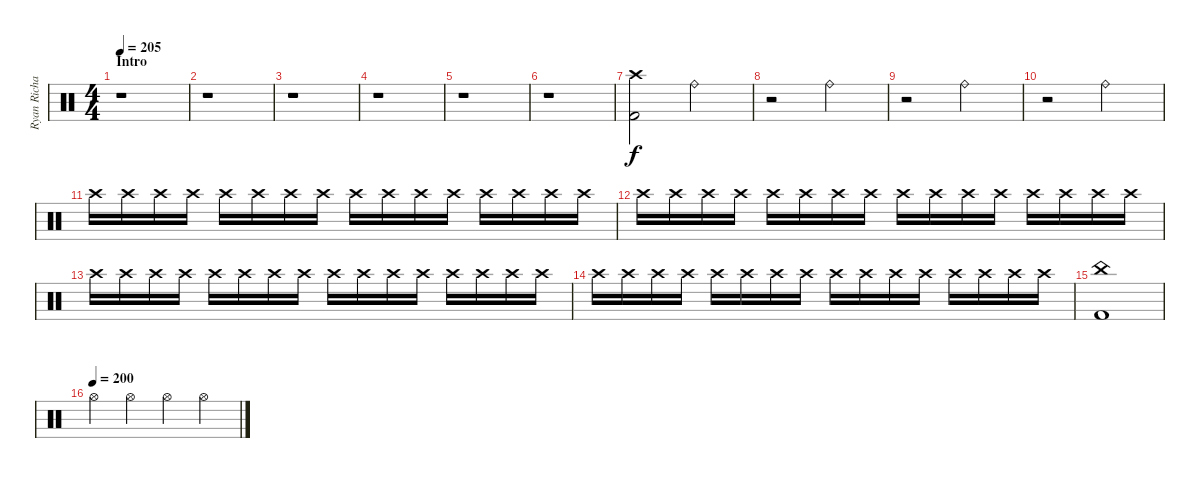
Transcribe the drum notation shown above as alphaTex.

\track ("Ryan Richards" "Ryan Richa") {instrument percussion}
\staff {score}
\articulation defaults
\ts (4 4)
\section ("" "Intro")
\tempo 205
\tempo 165
\tempo 205
\clef neutral
\ks c
r.1{dy f} |
r.1 |
r.1 |
r.1 |
r.1 |
r.1 |
("Crash high (hit)" "Kick (hit) 2").2 "Ride (bell)".2 |
r.2 "Ride (bell)".2 |
r.2 "Ride (bell)".2 |
r.2 "Ride (bell)".2 |
"Crash high (hit)".16{volume 0} "Crash high (hit)".16{volume 16} "Crash high (hit)".16 "Crash high (hit)".16 "Crash high (hit)".16 "Crash high (hit)".16 "Crash high (hit)".16 "Crash high (hit)".16 "Crash high (hit)".16 "Crash high (hit)".16 "Crash high (hit)".16 "Crash high (hit)".16 "Crash high (hit)".16 "Crash high (hit)".16 "Crash high (hit)".16 "Crash high (hit)".16 |
"Crash high (hit)".16 "Crash high (hit)".16 "Crash high (hit)".16 "Crash high (hit)".16 "Crash high (hit)".16 "Crash high (hit)".16 "Crash high (hit)".16 "Crash high (hit)".16 "Crash high (hit)".16 "Crash high (hit)".16 "Crash high (hit)".16 "Crash high (hit)".16 "Crash high (hit)".16 "Crash high (hit)".16 "Crash high (hit)".16 "Crash high (hit)".16 |
"Crash high (hit)".16 "Crash high (hit)".16 "Crash high (hit)".16 "Crash high (hit)".16 "Crash high (hit)".16 "Crash high (hit)".16 "Crash high (hit)".16 "Crash high (hit)".16 "Crash high (hit)".16 "Crash high (hit)".16 "Crash high (hit)".16 "Crash high (hit)".16 "Crash high (hit)".16 "Crash high (hit)".16 "Crash high (hit)".16 "Crash high (hit)".16 |
"Crash high (hit)".16 "Crash high (hit)".16 "Crash high (hit)".16 "Crash high (hit)".16 "Crash high (hit)".16 "Crash high (hit)".16 "Crash high (hit)".16 "Crash high (hit)".16 "Crash high (hit)".16 "Crash high (hit)".16 "Crash high (hit)".16 "Crash high (hit)".16 "Crash high (hit)".16 "Crash high (hit)".16 "Crash high (hit)".16 "Crash high (hit)".16 |
("China (hit)" "Kick (hit) 2").1 |
\tempo (200)
"Hi-Hat (open)".4 "Hi-Hat (open)".4 "Hi-Hat (open)".4 "Hi-Hat (open)".4
